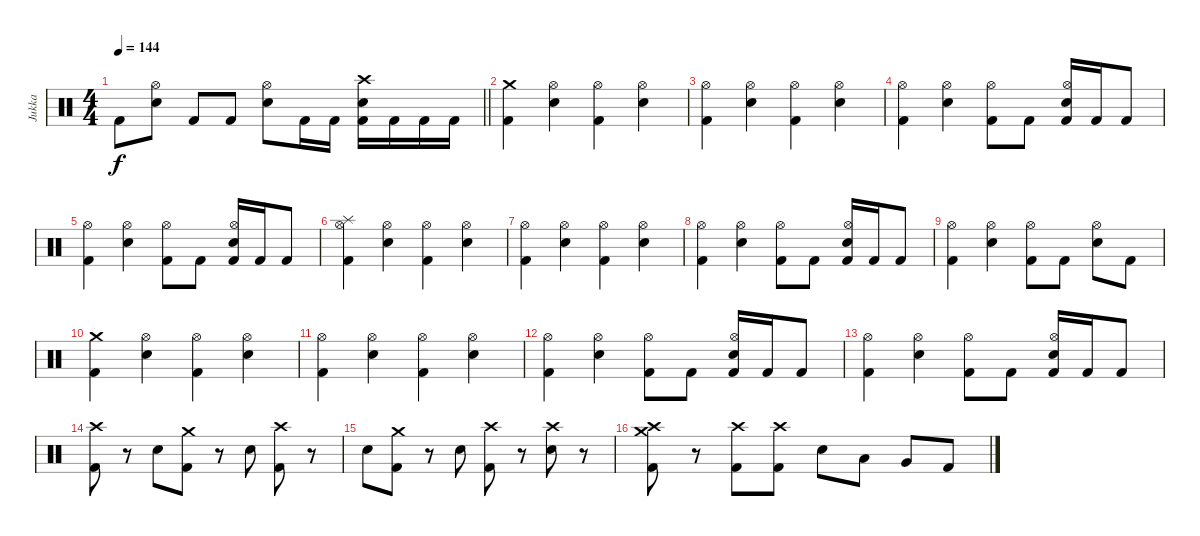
\track ("Jukka" "Jukka") {instrument percussion}
\staff {score}
\articulation defaults
\ts (4 4)
\tempo 144
\clef neutral
\barLineRight lightlight
\ks c "Kick (hit) 2".8{dy f}
("Hi-Hat (open)" "Electric Snare (hit)").8 "Kick (hit) 2".8 "Kick (hit) 2".8 ("Hi-Hat (open)" "Electric Snare (hit)").8 "Kick (hit) 2".16 "Kick (hit) 2".16 ("Crash high (hit)" "Electric Snare (hit)" "Kick (hit) 2").16 "Kick (hit) 2".16 "Kick (hit) 2".16 "Kick (hit) 2".16 |
("Crash medium (hit)" "Kick (hit) 2").4 ("Hi-Hat (open)" "Electric Snare (hit)").4 ("Hi-Hat (open)" "Kick (hit) 2").4 ("Hi-Hat (open)" "Electric Snare (hit)").4 |
("Hi-Hat (open)" "Kick (hit) 2").4 ("Hi-Hat (open)" "Electric Snare (hit)").4 ("Hi-Hat (open)" "Kick (hit) 2").4 ("Hi-Hat (open)" "Electric Snare (hit)").4 |
("Hi-Hat (open)" "Kick (hit) 2").4 ("Hi-Hat (open)" "Electric Snare (hit)").4 ("Hi-Hat (open)" "Kick (hit) 2").8 "Kick (hit) 2".8 ("Hi-Hat (open)" "Electric Snare (hit)" "Kick (hit) 2").16 "Kick (hit) 2".16 "Kick (hit) 2".8 |
("Hi-Hat (open)" "Kick (hit) 2").4 ("Hi-Hat (open)" "Electric Snare (hit)").4 ("Hi-Hat (open)" "Kick (hit) 2").8 "Kick (hit) 2".8 ("Hi-Hat (open)" "Electric Snare (hit)" "Kick (hit) 2").16 "Kick (hit) 2".16 "Kick (hit) 2".8 |
("Hi-Hat (open)" "Splash (hit)" "Kick (hit) 2").4 ("Hi-Hat (open)" "Electric Snare (hit)").4 ("Hi-Hat (open)" "Kick (hit) 2").4 ("Hi-Hat (open)" "Electric Snare (hit)").4 |
("Hi-Hat (open)" "Kick (hit) 2").4 ("Hi-Hat (open)" "Electric Snare (hit)").4 ("Hi-Hat (open)" "Kick (hit) 2").4 ("Hi-Hat (open)" "Electric Snare (hit)").4 |
("Hi-Hat (open)" "Kick (hit) 2").4 ("Hi-Hat (open)" "Electric Snare (hit)").4 ("Hi-Hat (open)" "Kick (hit) 2").8 "Kick (hit) 2".8 ("Hi-Hat (open)" "Electric Snare (hit)" "Kick (hit) 2").16 "Kick (hit) 2".16 "Kick (hit) 2".8 |
("Hi-Hat (open)" "Kick (hit) 2").4 ("Hi-Hat (open)" "Electric Snare (hit)").4 ("Hi-Hat (open)" "Kick (hit) 2").8 "Kick (hit) 2".8 ("Hi-Hat (open)" "Electric Snare (hit)").8 "Kick (hit) 2".8 |
("Crash medium (hit)" "Kick (hit) 2").4 ("Hi-Hat (open)" "Electric Snare (hit)").4 ("Hi-Hat (open)" "Kick (hit) 2").4 ("Hi-Hat (open)" "Electric Snare (hit)").4 |
("Hi-Hat (open)" "Kick (hit) 2").4 ("Hi-Hat (open)" "Electric Snare (hit)").4 ("Hi-Hat (open)" "Kick (hit) 2").4 ("Hi-Hat (open)" "Electric Snare (hit)").4 |
("Hi-Hat (open)" "Kick (hit) 2").4 ("Hi-Hat (open)" "Electric Snare (hit)").4 ("Hi-Hat (open)" "Kick (hit) 2").8 "Kick (hit) 2".8 ("Hi-Hat (open)" "Electric Snare (hit)" "Kick (hit) 2").16 "Kick (hit) 2".16 "Kick (hit) 2".8 |
("Hi-Hat (open)" "Kick (hit) 2").4 ("Hi-Hat (open)" "Electric Snare (hit)").4 ("Hi-Hat (open)" "Kick (hit) 2").8 "Kick (hit) 2".8 ("Hi-Hat (open)" "Electric Snare (hit)" "Kick (hit) 2").16 "Kick (hit) 2".16 "Kick (hit) 2".8 |
("Crash high (hit)" "Kick (hit) 2").8 r.8 "Electric Snare (hit)".8 ("Crash medium (hit)" "Kick (hit) 2").8 r.8 "Electric Snare (hit)".8 ("Crash high (hit)" "Kick (hit) 2").8 r.8 |
"Electric Snare (hit)".8 ("Crash medium (hit)" "Kick (hit) 2").8 r.8 "Electric Snare (hit)".8 ("Crash high (hit)" "Kick (hit) 2").8 r.8 ("Crash high (hit)" "Electric Snare (hit)").8 r.8 |
("Crash medium (hit)" "Crash high (hit)" "Kick (hit) 2").8 r.8 ("Crash high (hit)" "Kick (hit) 2").8 ("Crash high (hit)" "Kick (hit) 2").8 "Electric Snare (hit)".8 "Low Tom (hit)".8 "Very Low Tom (hit)".8 "Kick (hit) 2".8
